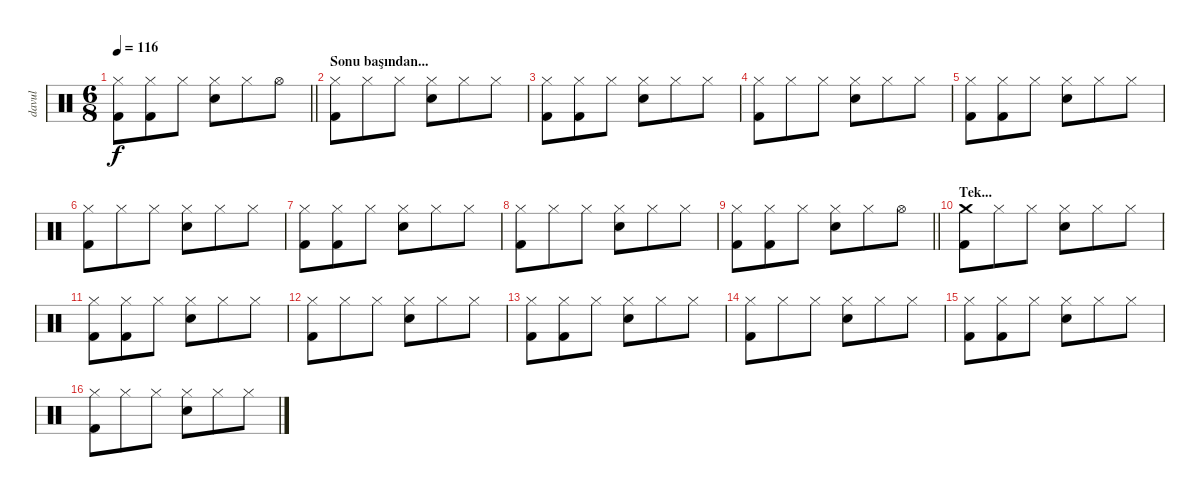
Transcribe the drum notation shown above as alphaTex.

\track ("davul" "davul") {instrument percussion}
\staff {score}
\articulation defaults
\ts (6 8)
\tempo 116
\clef neutral
\barLineRight lightlight
\ks c
("Hi-Hat (closed)" "Kick (hit) 2").8{dy f} ("Hi-Hat (closed)" "Kick (hit) 2").8 "Hi-Hat (closed)".8 ("Hi-Hat (closed)" "Electric Snare (hit)").8 "Hi-Hat (closed)".8 "Hi-Hat (open)".8 |
\section ("" "Sonu başından...")
("Hi-Hat (closed)" "Kick (hit) 2").8 "Hi-Hat (closed)".8 "Hi-Hat (closed)".8 ("Hi-Hat (closed)" "Electric Snare (hit)").8 "Hi-Hat (closed)".8 "Hi-Hat (closed)".8 |
("Hi-Hat (closed)" "Kick (hit) 2").8 ("Hi-Hat (closed)" "Kick (hit) 2").8 "Hi-Hat (closed)".8 ("Hi-Hat (closed)" "Electric Snare (hit)").8 "Hi-Hat (closed)".8 "Hi-Hat (closed)".8 |
("Hi-Hat (closed)" "Kick (hit) 2").8 "Hi-Hat (closed)".8 "Hi-Hat (closed)".8 ("Hi-Hat (closed)" "Electric Snare (hit)").8 "Hi-Hat (closed)".8 "Hi-Hat (closed)".8 |
("Hi-Hat (closed)" "Kick (hit) 2").8 ("Hi-Hat (closed)" "Kick (hit) 2").8 "Hi-Hat (closed)".8 ("Hi-Hat (closed)" "Electric Snare (hit)").8 "Hi-Hat (closed)".8 "Hi-Hat (closed)".8 |
("Hi-Hat (closed)" "Kick (hit) 2").8 "Hi-Hat (closed)".8 "Hi-Hat (closed)".8 ("Hi-Hat (closed)" "Electric Snare (hit)").8 "Hi-Hat (closed)".8 "Hi-Hat (closed)".8 |
("Hi-Hat (closed)" "Kick (hit) 2").8 ("Hi-Hat (closed)" "Kick (hit) 2").8 "Hi-Hat (closed)".8 ("Hi-Hat (closed)" "Electric Snare (hit)").8 "Hi-Hat (closed)".8 "Hi-Hat (closed)".8 |
("Hi-Hat (closed)" "Kick (hit) 2").8 "Hi-Hat (closed)".8 "Hi-Hat (closed)".8 ("Hi-Hat (closed)" "Electric Snare (hit)").8 "Hi-Hat (closed)".8 "Hi-Hat (closed)".8 |
\barLineRight lightlight
("Hi-Hat (closed)" "Kick (hit) 2").8 ("Hi-Hat (closed)" "Kick (hit) 2").8 "Hi-Hat (closed)".8 ("Hi-Hat (closed)" "Electric Snare (hit)").8 "Hi-Hat (closed)".8 "Hi-Hat (open)".8 |
\section ("" "Tek...")
("Crash medium (hit)" "Kick (hit) 2").8 "Hi-Hat (closed)".8 "Hi-Hat (closed)".8 ("Hi-Hat (closed)" "Electric Snare (hit)").8 "Hi-Hat (closed)".8 "Hi-Hat (closed)".8 |
("Hi-Hat (closed)" "Kick (hit) 2").8 ("Hi-Hat (closed)" "Kick (hit) 2").8 "Hi-Hat (closed)".8 ("Hi-Hat (closed)" "Electric Snare (hit)").8 "Hi-Hat (closed)".8 "Hi-Hat (closed)".8 |
("Hi-Hat (closed)" "Kick (hit) 2").8 "Hi-Hat (closed)".8 "Hi-Hat (closed)".8 ("Hi-Hat (closed)" "Electric Snare (hit)").8 "Hi-Hat (closed)".8 "Hi-Hat (closed)".8 |
("Hi-Hat (closed)" "Kick (hit) 2").8 ("Hi-Hat (closed)" "Kick (hit) 2").8 "Hi-Hat (closed)".8 ("Hi-Hat (closed)" "Electric Snare (hit)").8 "Hi-Hat (closed)".8 "Hi-Hat (closed)".8 |
("Hi-Hat (closed)" "Kick (hit) 2").8 "Hi-Hat (closed)".8 "Hi-Hat (closed)".8 ("Hi-Hat (closed)" "Electric Snare (hit)").8 "Hi-Hat (closed)".8 "Hi-Hat (closed)".8 |
("Hi-Hat (closed)" "Kick (hit) 2").8 ("Hi-Hat (closed)" "Kick (hit) 2").8 "Hi-Hat (closed)".8 ("Hi-Hat (closed)" "Electric Snare (hit)").8 "Hi-Hat (closed)".8 "Hi-Hat (closed)".8 |
("Hi-Hat (closed)" "Kick (hit) 2").8 "Hi-Hat (closed)".8 "Hi-Hat (closed)".8 ("Hi-Hat (closed)" "Electric Snare (hit)").8 "Hi-Hat (closed)".8 "Hi-Hat (closed)".8
